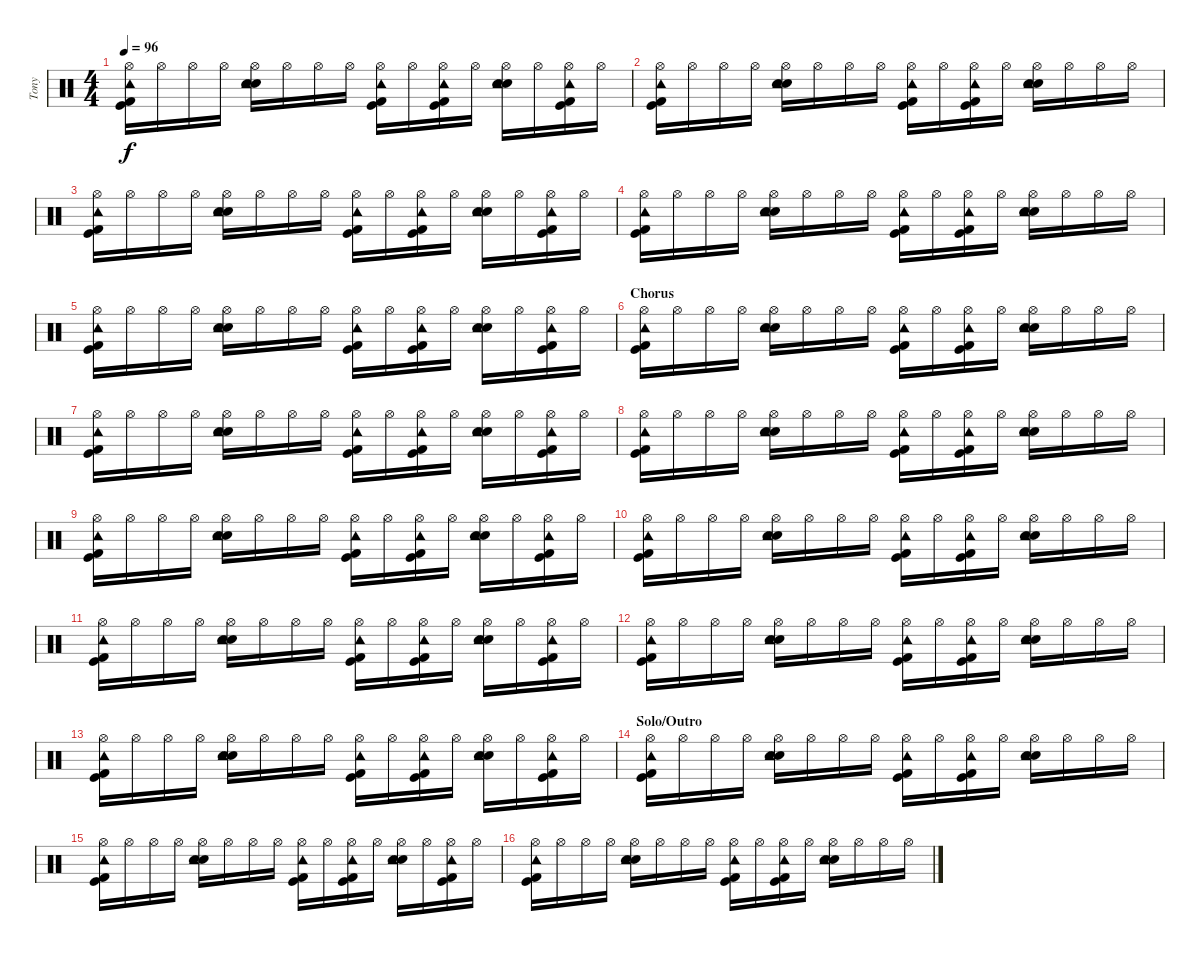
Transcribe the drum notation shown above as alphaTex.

\track ("Tony" "Tony") {instrument percussion}
\staff {score}
\articulation defaults
\ts (4 4)
\tempo 96
\clef neutral
\ks c
("Kick (hit)" "Kick (hit) 2" "Tambourine (hit)" "Hi-Hat (open)").16{dy f} "Hi-Hat (open)".16 "Hi-Hat (open)".16 "Hi-Hat (open)".16 ("Electric Snare (hit)" "Snare (hit) 2" "Tambourine (hit)" "Hi-Hat (open)").16 "Hi-Hat (open)".16 "Hi-Hat (open)".16 "Hi-Hat (open)".16 ("Kick (hit)" "Kick (hit) 2" "Tambourine (hit)" "Hi-Hat (open)").16 "Hi-Hat (open)".16 ("Kick (hit)" "Kick (hit) 2" "Tambourine (hit)" "Hi-Hat (open)").16 "Hi-Hat (open)".16 ("Electric Snare (hit)" "Snare (hit) 2" "Tambourine (hit)" "Hi-Hat (open)").16 "Hi-Hat (open)".16 ("Kick (hit)" "Kick (hit) 2" "Tambourine (hit)" "Hi-Hat (open)").16 "Hi-Hat (open)".16 |
("Kick (hit)" "Kick (hit) 2" "Tambourine (hit)" "Hi-Hat (open)").16 "Hi-Hat (open)".16 "Hi-Hat (open)".16 "Hi-Hat (open)".16 ("Electric Snare (hit)" "Snare (hit) 2" "Tambourine (hit)" "Hi-Hat (open)").16 "Hi-Hat (open)".16 "Hi-Hat (open)".16 "Hi-Hat (open)".16 ("Kick (hit)" "Kick (hit) 2" "Tambourine (hit)" "Hi-Hat (open)").16 "Hi-Hat (open)".16 ("Kick (hit)" "Kick (hit) 2" "Tambourine (hit)" "Hi-Hat (open)").16 "Hi-Hat (open)".16 ("Electric Snare (hit)" "Snare (hit) 2" "Tambourine (hit)" "Hi-Hat (open)").16 "Hi-Hat (open)".16 "Hi-Hat (open)".16 "Hi-Hat (open)".16 |
("Kick (hit)" "Kick (hit) 2" "Tambourine (hit)" "Hi-Hat (open)").16 "Hi-Hat (open)".16 "Hi-Hat (open)".16 "Hi-Hat (open)".16 ("Electric Snare (hit)" "Snare (hit) 2" "Tambourine (hit)" "Hi-Hat (open)").16 "Hi-Hat (open)".16 "Hi-Hat (open)".16 "Hi-Hat (open)".16 ("Kick (hit)" "Kick (hit) 2" "Tambourine (hit)" "Hi-Hat (open)").16 "Hi-Hat (open)".16 ("Kick (hit)" "Kick (hit) 2" "Tambourine (hit)" "Hi-Hat (open)").16 "Hi-Hat (open)".16 ("Electric Snare (hit)" "Snare (hit) 2" "Tambourine (hit)" "Hi-Hat (open)").16 "Hi-Hat (open)".16 ("Kick (hit)" "Kick (hit) 2" "Tambourine (hit)" "Hi-Hat (open)").16 "Hi-Hat (open)".16 |
("Kick (hit)" "Kick (hit) 2" "Tambourine (hit)" "Hi-Hat (open)").16 "Hi-Hat (open)".16 "Hi-Hat (open)".16 "Hi-Hat (open)".16 ("Electric Snare (hit)" "Snare (hit) 2" "Tambourine (hit)" "Hi-Hat (open)").16 "Hi-Hat (open)".16 "Hi-Hat (open)".16 "Hi-Hat (open)".16 ("Kick (hit)" "Kick (hit) 2" "Tambourine (hit)" "Hi-Hat (open)").16 "Hi-Hat (open)".16 ("Kick (hit)" "Kick (hit) 2" "Tambourine (hit)" "Hi-Hat (open)").16 "Hi-Hat (open)".16 ("Electric Snare (hit)" "Snare (hit) 2" "Tambourine (hit)" "Hi-Hat (open)").16 "Hi-Hat (open)".16 "Hi-Hat (open)".16 "Hi-Hat (open)".16 |
("Kick (hit)" "Kick (hit) 2" "Tambourine (hit)" "Hi-Hat (open)").16 "Hi-Hat (open)".16 "Hi-Hat (open)".16 "Hi-Hat (open)".16 ("Electric Snare (hit)" "Snare (hit) 2" "Tambourine (hit)" "Hi-Hat (open)").16 "Hi-Hat (open)".16 "Hi-Hat (open)".16 "Hi-Hat (open)".16 ("Kick (hit)" "Kick (hit) 2" "Tambourine (hit)" "Hi-Hat (open)").16 "Hi-Hat (open)".16 ("Kick (hit)" "Kick (hit) 2" "Tambourine (hit)" "Hi-Hat (open)").16 "Hi-Hat (open)".16 ("Electric Snare (hit)" "Snare (hit) 2" "Tambourine (hit)" "Hi-Hat (open)").16 "Hi-Hat (open)".16 ("Kick (hit)" "Kick (hit) 2" "Tambourine (hit)" "Hi-Hat (open)").16 "Hi-Hat (open)".16 |
\section ("" "Chorus")
("Kick (hit)" "Kick (hit) 2" "Tambourine (hit)" "Hi-Hat (open)").16 "Hi-Hat (open)".16 "Hi-Hat (open)".16 "Hi-Hat (open)".16 ("Electric Snare (hit)" "Snare (hit) 2" "Tambourine (hit)" "Hi-Hat (open)").16 "Hi-Hat (open)".16 "Hi-Hat (open)".16 "Hi-Hat (open)".16 ("Kick (hit)" "Kick (hit) 2" "Tambourine (hit)" "Hi-Hat (open)").16 "Hi-Hat (open)".16 ("Kick (hit)" "Kick (hit) 2" "Tambourine (hit)" "Hi-Hat (open)").16 "Hi-Hat (open)".16 ("Electric Snare (hit)" "Snare (hit) 2" "Tambourine (hit)" "Hi-Hat (open)").16 "Hi-Hat (open)".16 "Hi-Hat (open)".16 "Hi-Hat (open)".16 |
("Kick (hit)" "Kick (hit) 2" "Tambourine (hit)" "Hi-Hat (open)").16 "Hi-Hat (open)".16 "Hi-Hat (open)".16 "Hi-Hat (open)".16 ("Electric Snare (hit)" "Snare (hit) 2" "Tambourine (hit)" "Hi-Hat (open)").16 "Hi-Hat (open)".16 "Hi-Hat (open)".16 "Hi-Hat (open)".16 ("Kick (hit)" "Kick (hit) 2" "Tambourine (hit)" "Hi-Hat (open)").16 "Hi-Hat (open)".16 ("Kick (hit)" "Kick (hit) 2" "Tambourine (hit)" "Hi-Hat (open)").16 "Hi-Hat (open)".16 ("Electric Snare (hit)" "Snare (hit) 2" "Tambourine (hit)" "Hi-Hat (open)").16 "Hi-Hat (open)".16 ("Kick (hit)" "Kick (hit) 2" "Tambourine (hit)" "Hi-Hat (open)").16 "Hi-Hat (open)".16 |
("Kick (hit)" "Kick (hit) 2" "Tambourine (hit)" "Hi-Hat (open)").16 "Hi-Hat (open)".16 "Hi-Hat (open)".16 "Hi-Hat (open)".16 ("Electric Snare (hit)" "Snare (hit) 2" "Tambourine (hit)" "Hi-Hat (open)").16 "Hi-Hat (open)".16 "Hi-Hat (open)".16 "Hi-Hat (open)".16 ("Kick (hit)" "Kick (hit) 2" "Tambourine (hit)" "Hi-Hat (open)").16 "Hi-Hat (open)".16 ("Kick (hit)" "Kick (hit) 2" "Tambourine (hit)" "Hi-Hat (open)").16 "Hi-Hat (open)".16 ("Electric Snare (hit)" "Snare (hit) 2" "Tambourine (hit)" "Hi-Hat (open)").16 "Hi-Hat (open)".16 "Hi-Hat (open)".16 "Hi-Hat (open)".16 |
("Kick (hit)" "Kick (hit) 2" "Tambourine (hit)" "Hi-Hat (open)").16 "Hi-Hat (open)".16 "Hi-Hat (open)".16 "Hi-Hat (open)".16 ("Electric Snare (hit)" "Snare (hit) 2" "Tambourine (hit)" "Hi-Hat (open)").16 "Hi-Hat (open)".16 "Hi-Hat (open)".16 "Hi-Hat (open)".16 ("Kick (hit)" "Kick (hit) 2" "Tambourine (hit)" "Hi-Hat (open)").16 "Hi-Hat (open)".16 ("Kick (hit)" "Kick (hit) 2" "Tambourine (hit)" "Hi-Hat (open)").16 "Hi-Hat (open)".16 ("Electric Snare (hit)" "Snare (hit) 2" "Tambourine (hit)" "Hi-Hat (open)").16 "Hi-Hat (open)".16 ("Kick (hit)" "Kick (hit) 2" "Tambourine (hit)" "Hi-Hat (open)").16 "Hi-Hat (open)".16 |
("Kick (hit)" "Kick (hit) 2" "Tambourine (hit)" "Hi-Hat (open)").16 "Hi-Hat (open)".16 "Hi-Hat (open)".16 "Hi-Hat (open)".16 ("Electric Snare (hit)" "Snare (hit) 2" "Tambourine (hit)" "Hi-Hat (open)").16 "Hi-Hat (open)".16 "Hi-Hat (open)".16 "Hi-Hat (open)".16 ("Kick (hit)" "Kick (hit) 2" "Tambourine (hit)" "Hi-Hat (open)").16 "Hi-Hat (open)".16 ("Kick (hit)" "Kick (hit) 2" "Tambourine (hit)" "Hi-Hat (open)").16 "Hi-Hat (open)".16 ("Electric Snare (hit)" "Snare (hit) 2" "Tambourine (hit)" "Hi-Hat (open)").16 "Hi-Hat (open)".16 "Hi-Hat (open)".16 "Hi-Hat (open)".16 |
("Kick (hit)" "Kick (hit) 2" "Tambourine (hit)" "Hi-Hat (open)").16 "Hi-Hat (open)".16 "Hi-Hat (open)".16 "Hi-Hat (open)".16 ("Electric Snare (hit)" "Snare (hit) 2" "Tambourine (hit)" "Hi-Hat (open)").16 "Hi-Hat (open)".16 "Hi-Hat (open)".16 "Hi-Hat (open)".16 ("Kick (hit)" "Kick (hit) 2" "Tambourine (hit)" "Hi-Hat (open)").16 "Hi-Hat (open)".16 ("Kick (hit)" "Kick (hit) 2" "Tambourine (hit)" "Hi-Hat (open)").16 "Hi-Hat (open)".16 ("Electric Snare (hit)" "Snare (hit) 2" "Tambourine (hit)" "Hi-Hat (open)").16 "Hi-Hat (open)".16 ("Kick (hit)" "Kick (hit) 2" "Tambourine (hit)" "Hi-Hat (open)").16 "Hi-Hat (open)".16 |
("Kick (hit)" "Kick (hit) 2" "Tambourine (hit)" "Hi-Hat (open)").16 "Hi-Hat (open)".16 "Hi-Hat (open)".16 "Hi-Hat (open)".16 ("Electric Snare (hit)" "Snare (hit) 2" "Tambourine (hit)" "Hi-Hat (open)").16 "Hi-Hat (open)".16 "Hi-Hat (open)".16 "Hi-Hat (open)".16 ("Kick (hit)" "Kick (hit) 2" "Tambourine (hit)" "Hi-Hat (open)").16 "Hi-Hat (open)".16 ("Kick (hit)" "Kick (hit) 2" "Tambourine (hit)" "Hi-Hat (open)").16 "Hi-Hat (open)".16 ("Electric Snare (hit)" "Snare (hit) 2" "Tambourine (hit)" "Hi-Hat (open)").16 "Hi-Hat (open)".16 "Hi-Hat (open)".16 "Hi-Hat (open)".16 |
("Kick (hit)" "Kick (hit) 2" "Tambourine (hit)" "Hi-Hat (open)").16 "Hi-Hat (open)".16 "Hi-Hat (open)".16 "Hi-Hat (open)".16 ("Electric Snare (hit)" "Snare (hit) 2" "Tambourine (hit)" "Hi-Hat (open)").16 "Hi-Hat (open)".16 "Hi-Hat (open)".16 "Hi-Hat (open)".16 ("Kick (hit)" "Kick (hit) 2" "Tambourine (hit)" "Hi-Hat (open)").16 "Hi-Hat (open)".16 ("Kick (hit)" "Kick (hit) 2" "Tambourine (hit)" "Hi-Hat (open)").16 "Hi-Hat (open)".16 ("Electric Snare (hit)" "Snare (hit) 2" "Tambourine (hit)" "Hi-Hat (open)").16 "Hi-Hat (open)".16 ("Kick (hit)" "Kick (hit) 2" "Tambourine (hit)" "Hi-Hat (open)").16 "Hi-Hat (open)".16 |
\section ("" "Solo/Outro")
("Kick (hit)" "Kick (hit) 2" "Tambourine (hit)" "Hi-Hat (open)").16 "Hi-Hat (open)".16 "Hi-Hat (open)".16 "Hi-Hat (open)".16 ("Electric Snare (hit)" "Snare (hit) 2" "Tambourine (hit)" "Hi-Hat (open)").16 "Hi-Hat (open)".16 "Hi-Hat (open)".16 "Hi-Hat (open)".16 ("Kick (hit)" "Kick (hit) 2" "Tambourine (hit)" "Hi-Hat (open)").16 "Hi-Hat (open)".16 ("Kick (hit)" "Kick (hit) 2" "Tambourine (hit)" "Hi-Hat (open)").16 "Hi-Hat (open)".16 ("Electric Snare (hit)" "Snare (hit) 2" "Tambourine (hit)" "Hi-Hat (open)").16 "Hi-Hat (open)".16 "Hi-Hat (open)".16 "Hi-Hat (open)".16 |
("Kick (hit)" "Kick (hit) 2" "Tambourine (hit)" "Hi-Hat (open)").16 "Hi-Hat (open)".16 "Hi-Hat (open)".16 "Hi-Hat (open)".16 ("Electric Snare (hit)" "Snare (hit) 2" "Tambourine (hit)" "Hi-Hat (open)").16 "Hi-Hat (open)".16 "Hi-Hat (open)".16 "Hi-Hat (open)".16 ("Kick (hit)" "Kick (hit) 2" "Tambourine (hit)" "Hi-Hat (open)").16 "Hi-Hat (open)".16 ("Kick (hit)" "Kick (hit) 2" "Tambourine (hit)" "Hi-Hat (open)").16 "Hi-Hat (open)".16 ("Electric Snare (hit)" "Snare (hit) 2" "Tambourine (hit)" "Hi-Hat (open)").16 "Hi-Hat (open)".16 ("Kick (hit)" "Kick (hit) 2" "Tambourine (hit)" "Hi-Hat (open)").16 "Hi-Hat (open)".16 |
("Kick (hit)" "Kick (hit) 2" "Tambourine (hit)" "Hi-Hat (open)").16 "Hi-Hat (open)".16 "Hi-Hat (open)".16 "Hi-Hat (open)".16 ("Electric Snare (hit)" "Snare (hit) 2" "Tambourine (hit)" "Hi-Hat (open)").16 "Hi-Hat (open)".16 "Hi-Hat (open)".16 "Hi-Hat (open)".16 ("Kick (hit)" "Kick (hit) 2" "Tambourine (hit)" "Hi-Hat (open)").16 "Hi-Hat (open)".16 ("Kick (hit)" "Kick (hit) 2" "Tambourine (hit)" "Hi-Hat (open)").16 "Hi-Hat (open)".16 ("Electric Snare (hit)" "Snare (hit) 2" "Tambourine (hit)" "Hi-Hat (open)").16 "Hi-Hat (open)".16 "Hi-Hat (open)".16 "Hi-Hat (open)".16
